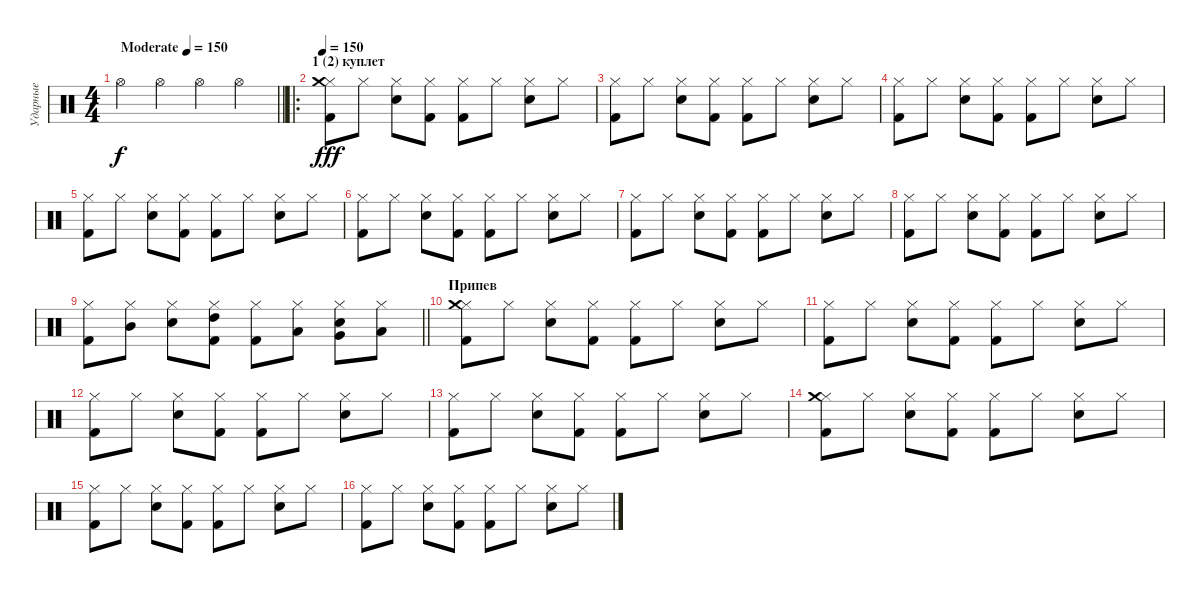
\track ("Ударные" "Ударные") {instrument percussion}
\staff {score}
\articulation defaults
\ts (4 4)
\tempo (150 "Moderate")
\tempo 130
\tempo (150 "Moderate")
\clef neutral
\barLineRight lightlight
\ks c "Hi-Hat (open)".4{dy f} "Hi-Hat (open)".4 "Hi-Hat (open)".4 "Hi-Hat (open)".4
|
\ro
\section ("" "1 (2) куплет")
\tempo 150
("Kick (hit) 2" "Hi-Hat (closed)" "Crash medium (hit)").8{dy fff} "Hi-Hat (closed)".8 ("Electric Snare (hit)" "Hi-Hat (closed)").8 ("Kick (hit) 2" "Hi-Hat (closed)").8 ("Hi-Hat (closed)" "Kick (hit) 2").8 "Hi-Hat (closed)".8 ("Hi-Hat (closed)" "Electric Snare (hit)").8 "Hi-Hat (closed)".8 |
("Kick (hit) 2" "Hi-Hat (closed)").8 "Hi-Hat (closed)".8 ("Electric Snare (hit)" "Hi-Hat (closed)").8 ("Kick (hit) 2" "Hi-Hat (closed)").8 ("Hi-Hat (closed)" "Kick (hit) 2").8 "Hi-Hat (closed)".8 ("Hi-Hat (closed)" "Electric Snare (hit)").8 "Hi-Hat (closed)".8 |
("Kick (hit) 2" "Hi-Hat (closed)").8 "Hi-Hat (closed)".8 ("Electric Snare (hit)" "Hi-Hat (closed)").8 ("Kick (hit) 2" "Hi-Hat (closed)").8 ("Hi-Hat (closed)" "Kick (hit) 2").8 "Hi-Hat (closed)".8 ("Hi-Hat (closed)" "Electric Snare (hit)").8 "Hi-Hat (closed)".8 |
("Kick (hit) 2" "Hi-Hat (closed)").8 "Hi-Hat (closed)".8 ("Electric Snare (hit)" "Hi-Hat (closed)").8 ("Kick (hit) 2" "Hi-Hat (closed)").8 ("Hi-Hat (closed)" "Kick (hit) 2").8 "Hi-Hat (closed)".8 ("Hi-Hat (closed)" "Electric Snare (hit)").8 "Hi-Hat (closed)".8 |
("Kick (hit) 2" "Hi-Hat (closed)").8 "Hi-Hat (closed)".8 ("Electric Snare (hit)" "Hi-Hat (closed)").8 ("Kick (hit) 2" "Hi-Hat (closed)").8 ("Hi-Hat (closed)" "Kick (hit) 2").8 "Hi-Hat (closed)".8 ("Hi-Hat (closed)" "Electric Snare (hit)").8 "Hi-Hat (closed)".8 |
("Kick (hit) 2" "Hi-Hat (closed)").8 "Hi-Hat (closed)".8 ("Electric Snare (hit)" "Hi-Hat (closed)").8 ("Kick (hit) 2" "Hi-Hat (closed)").8 ("Hi-Hat (closed)" "Kick (hit) 2").8 "Hi-Hat (closed)".8 ("Hi-Hat (closed)" "Electric Snare (hit)").8 "Hi-Hat (closed)".8 |
("Kick (hit) 2" "Hi-Hat (closed)").8 "Hi-Hat (closed)".8 ("Electric Snare (hit)" "Hi-Hat (closed)").8 ("Kick (hit) 2" "Hi-Hat (closed)").8 ("Hi-Hat (closed)" "Kick (hit) 2").8 "Hi-Hat (closed)".8 ("Hi-Hat (closed)" "Electric Snare (hit)").8 "Hi-Hat (closed)".8 |
\barLineRight lightlight
("Kick (hit) 2" "Hi-Hat (closed)").8 ("Hi-Hat (closed)" "Mid Tom (hit)").8 ("Electric Snare (hit)" "Hi-Hat (closed)").8 ("Kick (hit) 2" "Hi-Hat (closed)" "High Tom (hit)").8 ("Hi-Hat (closed)" "Kick (hit) 2").8 ("Hi-Hat (closed)" "Low Tom (hit)").8 ("Hi-Hat (closed)" "Electric Snare (hit)" "Very Low Tom (hit)").8 ("Hi-Hat (closed)" "Low Floor Tom (hit)").8 |
\section ("" "Припев")
("Kick (hit) 2" "Hi-Hat (closed)" "Crash medium (hit)").8 "Hi-Hat (closed)".8 ("Electric Snare (hit)" "Hi-Hat (closed)").8 ("Kick (hit) 2" "Hi-Hat (closed)").8 ("Hi-Hat (closed)" "Kick (hit) 2").8 "Hi-Hat (closed)".8 ("Hi-Hat (closed)" "Electric Snare (hit)").8 "Hi-Hat (closed)".8 |
("Kick (hit) 2" "Hi-Hat (closed)").8 "Hi-Hat (closed)".8 ("Electric Snare (hit)" "Hi-Hat (closed)").8 ("Kick (hit) 2" "Hi-Hat (closed)").8 ("Hi-Hat (closed)" "Kick (hit) 2").8 "Hi-Hat (closed)".8 ("Hi-Hat (closed)" "Electric Snare (hit)").8 "Hi-Hat (closed)".8 |
("Kick (hit) 2" "Hi-Hat (closed)").8 "Hi-Hat (closed)".8 ("Electric Snare (hit)" "Hi-Hat (closed)").8 ("Kick (hit) 2" "Hi-Hat (closed)").8 ("Hi-Hat (closed)" "Kick (hit) 2").8 "Hi-Hat (closed)".8 ("Hi-Hat (closed)" "Electric Snare (hit)").8 "Hi-Hat (closed)".8 |
("Kick (hit) 2" "Hi-Hat (closed)").8 "Hi-Hat (closed)".8 ("Electric Snare (hit)" "Hi-Hat (closed)").8 ("Kick (hit) 2" "Hi-Hat (closed)").8 ("Hi-Hat (closed)" "Kick (hit) 2").8 "Hi-Hat (closed)".8 ("Hi-Hat (closed)" "Electric Snare (hit)").8 "Hi-Hat (closed)".8 |
("Kick (hit) 2" "Hi-Hat (closed)" "Crash medium (hit)").8 "Hi-Hat (closed)".8 ("Electric Snare (hit)" "Hi-Hat (closed)").8 ("Kick (hit) 2" "Hi-Hat (closed)").8 ("Hi-Hat (closed)" "Kick (hit) 2").8 "Hi-Hat (closed)".8 ("Hi-Hat (closed)" "Electric Snare (hit)").8 "Hi-Hat (closed)".8 |
("Kick (hit) 2" "Hi-Hat (closed)").8 "Hi-Hat (closed)".8 ("Electric Snare (hit)" "Hi-Hat (closed)").8 ("Kick (hit) 2" "Hi-Hat (closed)").8 ("Hi-Hat (closed)" "Kick (hit) 2").8 "Hi-Hat (closed)".8 ("Hi-Hat (closed)" "Electric Snare (hit)").8 "Hi-Hat (closed)".8 |
("Kick (hit) 2" "Hi-Hat (closed)").8 "Hi-Hat (closed)".8 ("Electric Snare (hit)" "Hi-Hat (closed)").8 ("Kick (hit) 2" "Hi-Hat (closed)").8 ("Hi-Hat (closed)" "Kick (hit) 2").8 "Hi-Hat (closed)".8 ("Hi-Hat (closed)" "Electric Snare (hit)").8 "Hi-Hat (closed)".8
